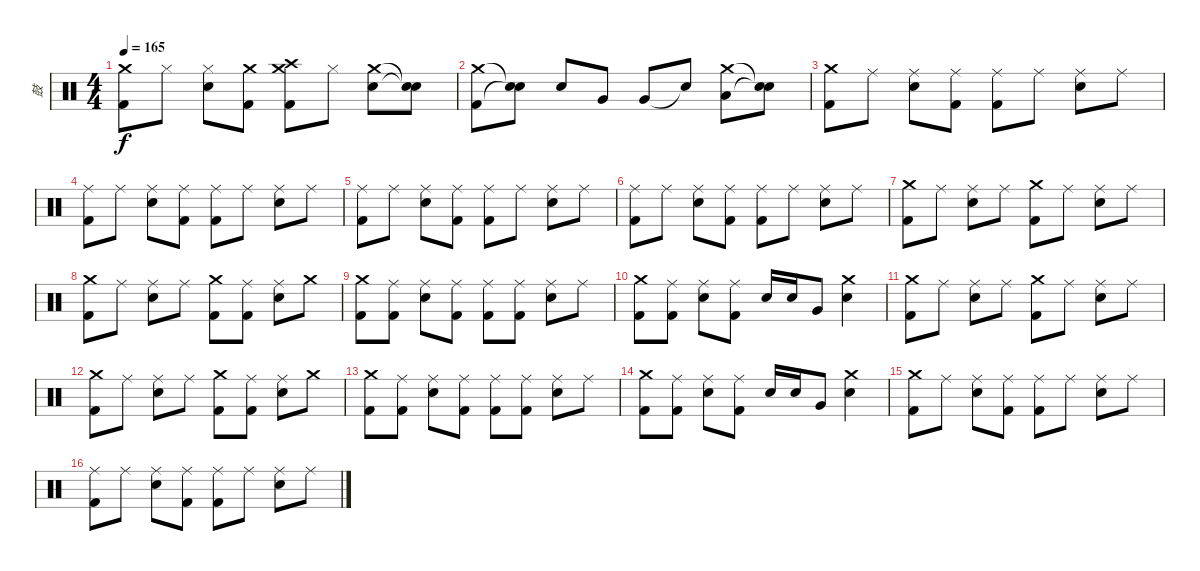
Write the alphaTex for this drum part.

\track ("鼓" "鼓") {instrument percussion}
\staff {score}
\articulation defaults
\ts (4 4)
\tempo 165
\clef neutral
\ks c
("Crash medium (hit)" "Kick (hit) 2").8{dy f} "Hi-Hat (closed)".8 ("Hi-Hat (closed)" "Snare (hit) 2").8 ("Crash medium (hit)" "Kick (hit) 2").8 ("Crash medium (hit)" "Crash high (hit)" "Kick (hit) 2").8 "Hi-Hat (closed)".8 ("Crash medium (hit)" "Snare (hit) 2").8 ("Snare (hit)"{t} "Snare (hit)"{t}).8 |
("Crash medium (hit)" "Kick (hit) 2").8 ("Snare (hit)"{t} "Snare (hit)"{t}).8 "Snare (hit) 2".8 "Very Low Tom (hit)".8 "Very Low Tom (hit)".8 "Snare (hit)"{t}.8 ("Crash medium (hit)" "Low Floor Tom (hit)").8 ("Snare (hit)"{t} "Snare (hit)"{t}).8 |
("Crash medium (hit)" "Kick (hit) 2").8 "Ride (middle)".8 ("Ride (middle)" "Snare (hit) 2").8 ("Ride (middle)" "Kick (hit) 2").8 ("Ride (middle)" "Kick (hit) 2").8 "Ride (middle)".8 ("Ride (middle)" "Snare (hit) 2").8 "Ride (middle)".8 |
("Ride (middle)" "Kick (hit) 2").8 "Ride (middle)".8 ("Ride (middle)" "Snare (hit) 2").8 ("Ride (middle)" "Kick (hit) 2").8 ("Ride (middle)" "Kick (hit) 2").8 "Ride (middle)".8 ("Ride (middle)" "Snare (hit) 2").8 "Ride (middle)".8 |
("Ride (middle)" "Kick (hit) 2").8 "Ride (middle)".8 ("Ride (middle)" "Snare (hit) 2").8 ("Ride (middle)" "Kick (hit) 2").8 ("Ride (middle)" "Kick (hit) 2").8 "Ride (middle)".8 ("Ride (middle)" "Snare (hit) 2").8 "Ride (middle)".8 |
("Ride (middle)" "Kick (hit) 2").8 "Ride (middle)".8 ("Ride (middle)" "Snare (hit) 2").8 ("Ride (middle)" "Kick (hit) 2").8 ("Ride (middle)" "Kick (hit) 2").8 "Ride (middle)".8 ("Ride (middle)" "Snare (hit) 2").8 "Ride (middle)".8 |
("Crash medium (hit)" "Kick (hit) 2").8 "Ride (middle)".8 ("Ride (middle)" "Snare (hit) 2").8 "Ride (middle)".8 ("Crash medium (hit)" "Kick (hit) 2").8 "Ride (middle)".8 ("Ride (middle)" "Snare (hit) 2").8 "Ride (middle)".8 |
("Crash medium (hit)" "Kick (hit) 2").8 "Ride (middle)".8 ("Ride (middle)" "Snare (hit) 2").8 "Ride (middle)".8 ("Crash medium (hit)" "Kick (hit) 2").8 ("Ride (middle)" "Kick (hit) 2").8 ("Ride (middle)" "Snare (hit) 2").8 "Crash medium (hit)".8 |
("Crash medium (hit)" "Kick (hit) 2").8 ("Ride (middle)" "Kick (hit) 2").8 ("Ride (middle)" "Snare (hit) 2").8 ("Ride (middle)" "Kick (hit) 2").8 ("Ride (middle)" "Kick (hit) 2").8 ("Ride (middle)" "Kick (hit) 2").8 ("Ride (middle)" "Snare (hit) 2").8 "Ride (middle)".8 |
("Crash medium (hit)" "Kick (hit) 2").8 ("Ride (middle)" "Kick (hit) 2").8 ("Ride (middle)" "Snare (hit) 2").8 ("Ride (middle)" "Kick (hit) 2").8 "Snare (hit) 2".16 "Snare (hit) 2".16 "Very Low Tom (hit)".8 ("Crash medium (hit)" "Snare (hit) 2").4 |
("Crash medium (hit)" "Kick (hit) 2").8 "Ride (middle)".8 ("Ride (middle)" "Snare (hit) 2").8 "Ride (middle)".8 ("Crash medium (hit)" "Kick (hit) 2").8 "Ride (middle)".8 ("Ride (middle)" "Snare (hit) 2").8 "Ride (middle)".8 |
("Crash medium (hit)" "Kick (hit) 2").8 "Ride (middle)".8 ("Ride (middle)" "Snare (hit) 2").8 "Ride (middle)".8 ("Crash medium (hit)" "Kick (hit) 2").8 ("Ride (middle)" "Kick (hit) 2").8 ("Ride (middle)" "Snare (hit) 2").8 "Crash medium (hit)".8 |
("Crash medium (hit)" "Kick (hit) 2").8 ("Ride (middle)" "Kick (hit) 2").8 ("Ride (middle)" "Snare (hit) 2").8 ("Ride (middle)" "Kick (hit) 2").8 ("Ride (middle)" "Kick (hit) 2").8 ("Ride (middle)" "Kick (hit) 2").8 ("Ride (middle)" "Snare (hit) 2").8 "Ride (middle)".8 |
("Crash medium (hit)" "Kick (hit) 2").8 ("Ride (middle)" "Kick (hit) 2").8 ("Ride (middle)" "Snare (hit) 2").8 ("Ride (middle)" "Kick (hit) 2").8 "Snare (hit) 2".16 "Snare (hit) 2".16 "Very Low Tom (hit)".8 ("Crash medium (hit)" "Snare (hit) 2").4 |
("Crash medium (hit)" "Kick (hit) 2").8 "Ride (middle)".8 ("Ride (middle)" "Snare (hit) 2").8 ("Ride (middle)" "Kick (hit) 2").8 ("Ride (middle)" "Kick (hit) 2").8 "Ride (middle)".8 ("Ride (middle)" "Snare (hit) 2").8 "Ride (middle)".8 |
("Ride (middle)" "Kick (hit) 2").8 "Ride (middle)".8 ("Ride (middle)" "Snare (hit) 2").8 ("Ride (middle)" "Kick (hit) 2").8 ("Ride (middle)" "Kick (hit) 2").8 "Ride (middle)".8 ("Ride (middle)" "Snare (hit) 2").8 "Ride (middle)".8
